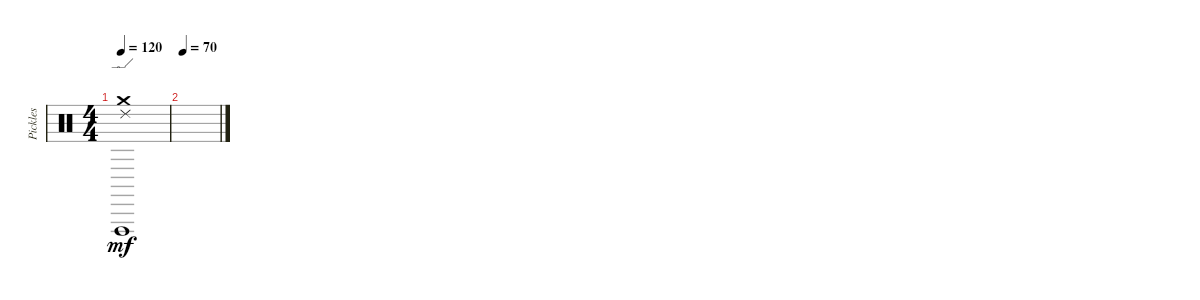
\track ("Pickles" "Pickles") {instrument percussion}
\staff {score}
\articulation defaults
\ts (4 4)
\tempo 120
\clef neutral
\ks aminor
("Ride (edge) 2" "Crash medium (hit)" "Vibraslap (hit)").1{dy mf} |
\tempo 70
